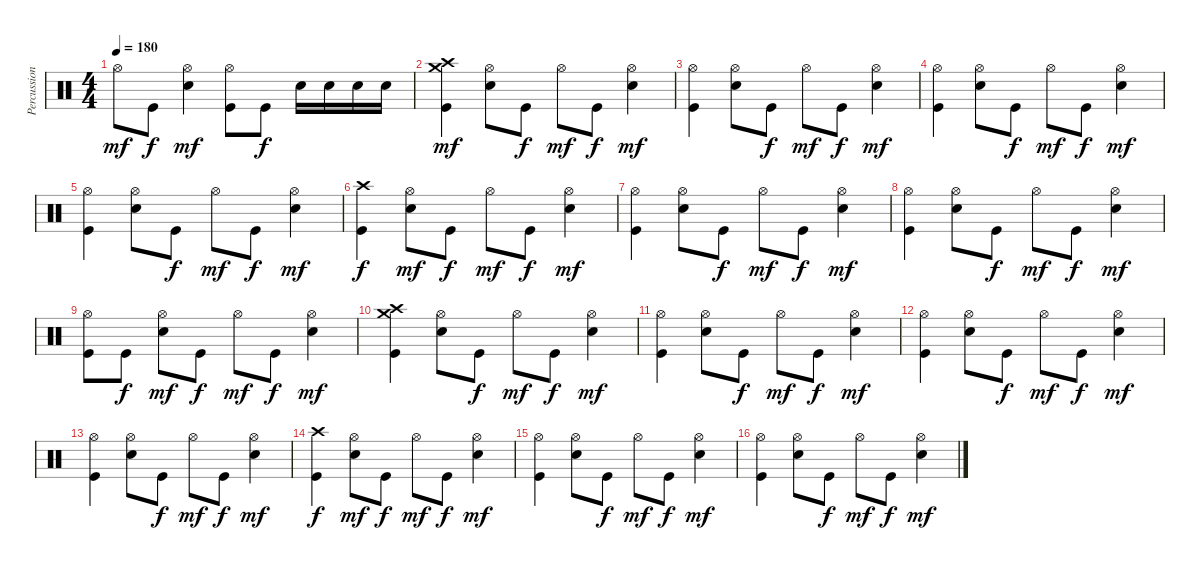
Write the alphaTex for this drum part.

\track ("Percussions" "Percussion") {instrument percussion}
\staff {score}
\articulation defaults
\ts (4 4)
\tempo 180
\clef neutral
\ks c "Hi-Hat (open)".8{dy mf} "Kick (hit)".8{dy f}
("Electric Snare (hit)" "Hi-Hat (open)").4{dy mf} ("Kick (hit)" "Hi-Hat (open)").8 "Kick (hit)".8{dy f} "Electric Snare (hit)".16 "Electric Snare (hit)".16 "Electric Snare (hit)".16 "Electric Snare (hit)".16 |
("Kick (hit)" "Crash high (hit)" "Crash medium (hit)").4{dy mf} ("Electric Snare (hit)" "Hi-Hat (open)").8 "Kick (hit)".8{dy f} "Hi-Hat (open)".8{dy mf} "Kick (hit)".8{dy f} ("Electric Snare (hit)" "Hi-Hat (open)").4{dy mf} |
("Kick (hit)" "Hi-Hat (open)").4 ("Electric Snare (hit)" "Hi-Hat (open)").8 "Kick (hit)".8{dy f} "Hi-Hat (open)".8{dy mf} "Kick (hit)".8{dy f} ("Electric Snare (hit)" "Hi-Hat (open)").4{dy mf} |
("Kick (hit)" "Hi-Hat (open)").4 ("Electric Snare (hit)" "Hi-Hat (open)").8 "Kick (hit)".8{dy f} "Hi-Hat (open)".8{dy mf} "Kick (hit)".8{dy f} ("Electric Snare (hit)" "Hi-Hat (open)").4{dy mf} |
("Kick (hit)" "Hi-Hat (open)").4 ("Electric Snare (hit)" "Hi-Hat (open)").8 "Kick (hit)".8{dy f} "Hi-Hat (open)".8{dy mf} "Kick (hit)".8{dy f} ("Electric Snare (hit)" "Hi-Hat (open)").4{dy mf} |
("Kick (hit)" "Crash high (hit)").4{dy f} ("Electric Snare (hit)" "Hi-Hat (open)").8{dy mf} "Kick (hit)".8{dy f} "Hi-Hat (open)".8{dy mf} "Kick (hit)".8{dy f} ("Electric Snare (hit)" "Hi-Hat (open)").4{dy mf} |
("Kick (hit)" "Hi-Hat (open)").4 ("Electric Snare (hit)" "Hi-Hat (open)").8 "Kick (hit)".8{dy f} "Hi-Hat (open)".8{dy mf} "Kick (hit)".8{dy f} ("Electric Snare (hit)" "Hi-Hat (open)").4{dy mf} |
("Kick (hit)" "Hi-Hat (open)").4 ("Electric Snare (hit)" "Hi-Hat (open)").8 "Kick (hit)".8{dy f} "Hi-Hat (open)".8{dy mf} "Kick (hit)".8{dy f} ("Electric Snare (hit)" "Hi-Hat (open)").4{dy mf} |
("Kick (hit)" "Hi-Hat (open)").8 "Kick (hit)".8{dy f} ("Electric Snare (hit)" "Hi-Hat (open)").8{dy mf} "Kick (hit)".8{dy f} "Hi-Hat (open)".8{dy mf} "Kick (hit)".8{dy f} ("Electric Snare (hit)" "Hi-Hat (open)").4{dy mf} |
("Kick (hit)" "Crash high (hit)" "Crash medium (hit)").4 ("Electric Snare (hit)" "Hi-Hat (open)").8 "Kick (hit)".8{dy f} "Hi-Hat (open)".8{dy mf} "Kick (hit)".8{dy f} ("Electric Snare (hit)" "Hi-Hat (open)").4{dy mf} |
("Kick (hit)" "Hi-Hat (open)").4 ("Electric Snare (hit)" "Hi-Hat (open)").8 "Kick (hit)".8{dy f} "Hi-Hat (open)".8{dy mf} "Kick (hit)".8{dy f} ("Electric Snare (hit)" "Hi-Hat (open)").4{dy mf} |
("Kick (hit)" "Hi-Hat (open)").4 ("Electric Snare (hit)" "Hi-Hat (open)").8 "Kick (hit)".8{dy f} "Hi-Hat (open)".8{dy mf} "Kick (hit)".8{dy f} ("Electric Snare (hit)" "Hi-Hat (open)").4{dy mf} |
("Kick (hit)" "Hi-Hat (open)").4 ("Electric Snare (hit)" "Hi-Hat (open)").8 "Kick (hit)".8{dy f} "Hi-Hat (open)".8{dy mf} "Kick (hit)".8{dy f} ("Electric Snare (hit)" "Hi-Hat (open)").4{dy mf} |
("Kick (hit)" "Crash high (hit)").4{dy f} ("Electric Snare (hit)" "Hi-Hat (open)").8{dy mf} "Kick (hit)".8{dy f} "Hi-Hat (open)".8{dy mf} "Kick (hit)".8{dy f} ("Electric Snare (hit)" "Hi-Hat (open)").4{dy mf} |
("Kick (hit)" "Hi-Hat (open)").4 ("Electric Snare (hit)" "Hi-Hat (open)").8 "Kick (hit)".8{dy f} "Hi-Hat (open)".8{dy mf} "Kick (hit)".8{dy f} ("Electric Snare (hit)" "Hi-Hat (open)").4{dy mf} |
("Kick (hit)" "Hi-Hat (open)").4 ("Electric Snare (hit)" "Hi-Hat (open)").8 "Kick (hit)".8{dy f} "Hi-Hat (open)".8{dy mf} "Kick (hit)".8{dy f} ("Electric Snare (hit)" "Hi-Hat (open)").4{dy mf}
